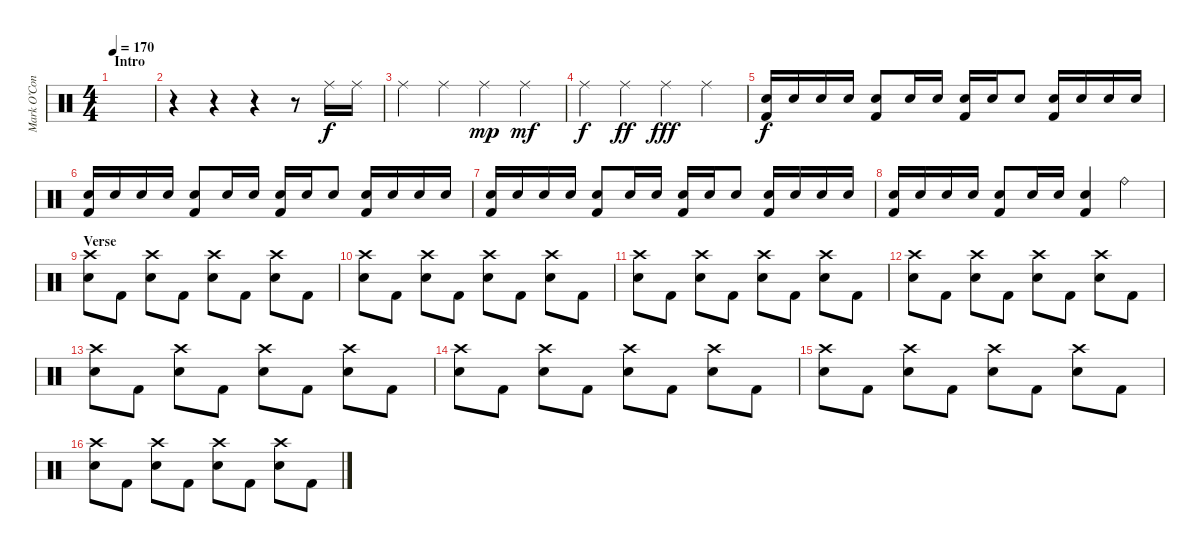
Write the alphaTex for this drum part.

\track ("Mark O’Connell - Drums" "Mark O’Con") {instrument percussion}
\staff {score}
\articulation defaults
\ts (4 4)
\section ("" "Intro")
\tempo 170
\clef neutral
\ks c
|
r.4 r.4 r.4 r.8 "Ride (middle)".16 "Ride (middle)".16 |
"Ride (middle)".4 "Ride (middle)".4 "Ride (middle)".4{dy mp} "Ride (middle)".4{dy mf} |
"Ride (middle)".4{dy f} "Ride (middle)".4{dy ff} "Ride (middle)".4{dy fff} "Ride (middle)".4 |
("Snare (hit) 2" "Kick (hit) 2").16{dy f} "Snare (hit) 2".16 "Snare (hit) 2".16 "Snare (hit) 2".16 ("Snare (hit) 2" "Kick (hit) 2").8 "Snare (hit) 2".16 "Snare (hit) 2".16 ("Snare (hit) 2" "Kick (hit) 2").16 "Snare (hit) 2".16 "Snare (hit) 2".8 ("Snare (hit) 2" "Kick (hit) 2").16 "Snare (hit) 2".16 "Snare (hit) 2".16 "Snare (hit) 2".16 |
("Snare (hit) 2" "Kick (hit) 2").16 "Snare (hit) 2".16 "Snare (hit) 2".16 "Snare (hit) 2".16 ("Snare (hit) 2" "Kick (hit) 2").8 "Snare (hit) 2".16 "Snare (hit) 2".16 ("Snare (hit) 2" "Kick (hit) 2").16 "Snare (hit) 2".16 "Snare (hit) 2".8 ("Snare (hit) 2" "Kick (hit) 2").16 "Snare (hit) 2".16 "Snare (hit) 2".16 "Snare (hit) 2".16 |
("Snare (hit) 2" "Kick (hit) 2").16 "Snare (hit) 2".16 "Snare (hit) 2".16 "Snare (hit) 2".16 ("Snare (hit) 2" "Kick (hit) 2").8 "Snare (hit) 2".16 "Snare (hit) 2".16 ("Snare (hit) 2" "Kick (hit) 2").16 "Snare (hit) 2".16 "Snare (hit) 2".8 ("Snare (hit) 2" "Kick (hit) 2").16 "Snare (hit) 2".16 "Snare (hit) 2".16 "Snare (hit) 2".16 |
("Snare (hit) 2" "Kick (hit) 2").16 "Snare (hit) 2".16 "Snare (hit) 2".16 "Snare (hit) 2".16 ("Snare (hit) 2" "Kick (hit) 2").8 "Snare (hit) 2".16 "Snare (hit) 2".16 ("Snare (hit) 2" "Kick (hit) 2").4 "Ride (bell)".4 |
\section ("" "Verse")
("Crash high (hit)" "Snare (hit) 2").8 "Kick (hit) 2".8 ("Crash high (hit)" "Snare (hit) 2").8 "Kick (hit) 2".8 ("Crash high (hit)" "Snare (hit) 2").8 "Kick (hit) 2".8 ("Crash high (hit)" "Snare (hit) 2").8 "Kick (hit) 2".8 |
("Crash high (hit)" "Snare (hit) 2").8 "Kick (hit) 2".8 ("Crash high (hit)" "Snare (hit) 2").8 "Kick (hit) 2".8 ("Crash high (hit)" "Snare (hit) 2").8 "Kick (hit) 2".8 ("Crash high (hit)" "Snare (hit) 2").8 "Kick (hit) 2".8 |
("Crash high (hit)" "Snare (hit) 2").8 "Kick (hit) 2".8 ("Crash high (hit)" "Snare (hit) 2").8 "Kick (hit) 2".8 ("Crash high (hit)" "Snare (hit) 2").8 "Kick (hit) 2".8 ("Crash high (hit)" "Snare (hit) 2").8 "Kick (hit) 2".8 |
("Crash high (hit)" "Snare (hit) 2").8 "Kick (hit) 2".8 ("Crash high (hit)" "Snare (hit) 2").8 "Kick (hit) 2".8 ("Crash high (hit)" "Snare (hit) 2").8 "Kick (hit) 2".8 ("Crash high (hit)" "Snare (hit) 2").8 "Kick (hit) 2".8 |
("Crash high (hit)" "Snare (hit) 2").8 "Kick (hit) 2".8 ("Crash high (hit)" "Snare (hit) 2").8 "Kick (hit) 2".8 ("Crash high (hit)" "Snare (hit) 2").8 "Kick (hit) 2".8 ("Crash high (hit)" "Snare (hit) 2").8 "Kick (hit) 2".8 |
("Crash high (hit)" "Snare (hit) 2").8 "Kick (hit) 2".8 ("Crash high (hit)" "Snare (hit) 2").8 "Kick (hit) 2".8 ("Crash high (hit)" "Snare (hit) 2").8 "Kick (hit) 2".8 ("Crash high (hit)" "Snare (hit) 2").8 "Kick (hit) 2".8 |
("Crash high (hit)" "Snare (hit) 2").8 "Kick (hit) 2".8 ("Crash high (hit)" "Snare (hit) 2").8 "Kick (hit) 2".8 ("Crash high (hit)" "Snare (hit) 2").8 "Kick (hit) 2".8 ("Crash high (hit)" "Snare (hit) 2").8 "Kick (hit) 2".8 |
("Crash high (hit)" "Snare (hit) 2").8 "Kick (hit) 2".8 ("Crash high (hit)" "Snare (hit) 2").8 "Kick (hit) 2".8 ("Crash high (hit)" "Snare (hit) 2").8 "Kick (hit) 2".8 ("Crash high (hit)" "Snare (hit) 2").8 "Kick (hit) 2".8
